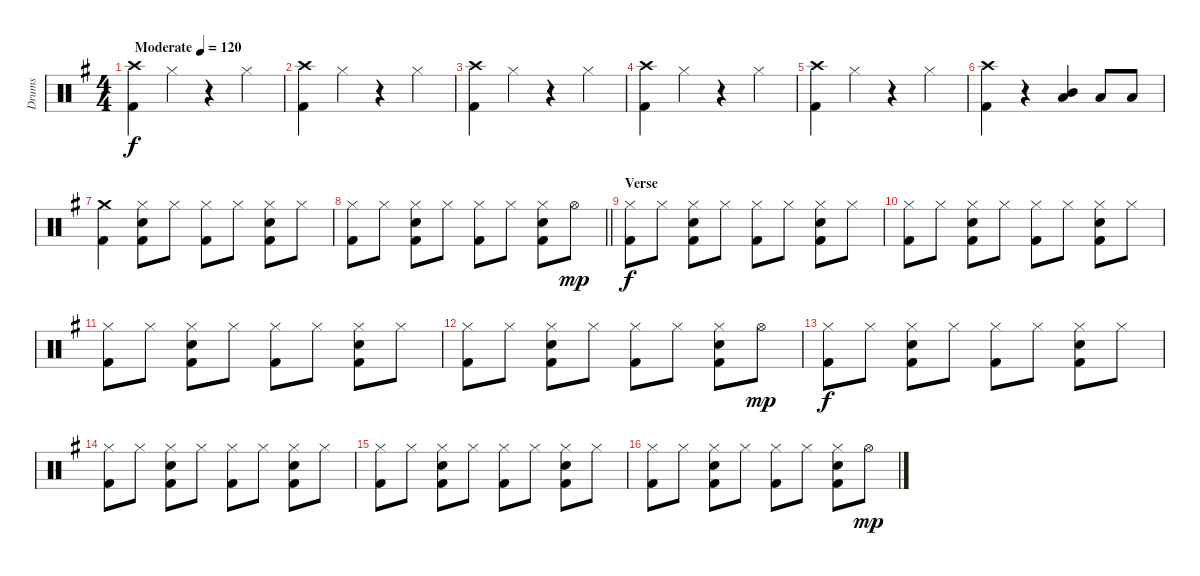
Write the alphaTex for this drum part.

\track ("Drums" "Drums") {instrument percussion}
\staff {score}
\articulation defaults
\ts (4 4)
\tempo (120 "Moderate")
\clef neutral
\ks g
("Crash high (hit)" "Kick (hit) 2").4{dy f} "Hi-Hat (closed)".4 r.4 "Hi-Hat (closed)".4 |
("Crash high (hit)" "Kick (hit) 2").4 "Hi-Hat (closed)".4 r.4 "Hi-Hat (closed)".4 |
("Crash high (hit)" "Kick (hit) 2").4 "Hi-Hat (closed)".4 r.4 "Hi-Hat (closed)".4 |
("Crash high (hit)" "Kick (hit) 2").4 "Hi-Hat (closed)".4 r.4 "Hi-Hat (closed)".4 |
("Crash high (hit)" "Kick (hit) 2").4 "Hi-Hat (closed)".4 r.4 "Hi-Hat (closed)".4 |
("Crash high (hit)" "Kick (hit) 2").4 r.4 ("Mid Tom (hit)" "Low Tom (hit)").4 "Low Tom (hit)".8 "Low Tom (hit)".8 |
("Crash medium (hit)" "Kick (hit) 2").4 ("Hi-Hat (closed)" "Electric Snare (hit)" "Kick (hit) 2").8 "Hi-Hat (closed)".8 ("Hi-Hat (closed)" "Kick (hit) 2").8 "Hi-Hat (closed)".8 ("Hi-Hat (closed)" "Electric Snare (hit)" "Kick (hit) 2").8 "Hi-Hat (closed)".8 |
\barLineRight lightlight
("Hi-Hat (closed)" "Kick (hit) 2").8 "Hi-Hat (closed)".8 ("Hi-Hat (closed)" "Electric Snare (hit)" "Kick (hit) 2").8 "Hi-Hat (closed)".8 ("Hi-Hat (closed)" "Kick (hit) 2").8 "Hi-Hat (closed)".8 ("Hi-Hat (closed)" "Electric Snare (hit)" "Kick (hit) 2").8 "Hi-Hat (open)".8{dy mp} |
\section ("" "Verse")
("Hi-Hat (closed)" "Kick (hit) 2").8{dy f} "Hi-Hat (closed)".8 ("Hi-Hat (closed)" "Electric Snare (hit)" "Kick (hit) 2").8 "Hi-Hat (closed)".8 ("Hi-Hat (closed)" "Kick (hit) 2").8 "Hi-Hat (closed)".8 ("Hi-Hat (closed)" "Electric Snare (hit)" "Kick (hit) 2").8 "Hi-Hat (closed)".8 |
("Hi-Hat (closed)" "Kick (hit) 2").8 "Hi-Hat (closed)".8 ("Hi-Hat (closed)" "Electric Snare (hit)" "Kick (hit) 2").8 "Hi-Hat (closed)".8 ("Hi-Hat (closed)" "Kick (hit) 2").8 "Hi-Hat (closed)".8 ("Hi-Hat (closed)" "Electric Snare (hit)" "Kick (hit) 2").8 "Hi-Hat (closed)".8 |
("Hi-Hat (closed)" "Kick (hit) 2").8 "Hi-Hat (closed)".8 ("Hi-Hat (closed)" "Electric Snare (hit)" "Kick (hit) 2").8 "Hi-Hat (closed)".8 ("Hi-Hat (closed)" "Kick (hit) 2").8 "Hi-Hat (closed)".8 ("Hi-Hat (closed)" "Electric Snare (hit)" "Kick (hit) 2").8 "Hi-Hat (closed)".8 |
("Hi-Hat (closed)" "Kick (hit) 2").8 "Hi-Hat (closed)".8 ("Hi-Hat (closed)" "Electric Snare (hit)" "Kick (hit) 2").8 "Hi-Hat (closed)".8 ("Hi-Hat (closed)" "Kick (hit) 2").8 "Hi-Hat (closed)".8 ("Hi-Hat (closed)" "Electric Snare (hit)" "Kick (hit) 2").8 "Hi-Hat (open)".8{dy mp} |
("Hi-Hat (closed)" "Kick (hit) 2").8{dy f} "Hi-Hat (closed)".8 ("Hi-Hat (closed)" "Electric Snare (hit)" "Kick (hit) 2").8 "Hi-Hat (closed)".8 ("Hi-Hat (closed)" "Kick (hit) 2").8 "Hi-Hat (closed)".8 ("Hi-Hat (closed)" "Electric Snare (hit)" "Kick (hit) 2").8 "Hi-Hat (closed)".8 |
("Hi-Hat (closed)" "Kick (hit) 2").8 "Hi-Hat (closed)".8 ("Hi-Hat (closed)" "Electric Snare (hit)" "Kick (hit) 2").8 "Hi-Hat (closed)".8 ("Hi-Hat (closed)" "Kick (hit) 2").8 "Hi-Hat (closed)".8 ("Hi-Hat (closed)" "Electric Snare (hit)" "Kick (hit) 2").8 "Hi-Hat (closed)".8 |
("Hi-Hat (closed)" "Kick (hit) 2").8 "Hi-Hat (closed)".8 ("Hi-Hat (closed)" "Electric Snare (hit)" "Kick (hit) 2").8 "Hi-Hat (closed)".8 ("Hi-Hat (closed)" "Kick (hit) 2").8 "Hi-Hat (closed)".8 ("Hi-Hat (closed)" "Electric Snare (hit)" "Kick (hit) 2").8 "Hi-Hat (closed)".8 |
("Hi-Hat (closed)" "Kick (hit) 2").8 "Hi-Hat (closed)".8 ("Hi-Hat (closed)" "Electric Snare (hit)" "Kick (hit) 2").8 "Hi-Hat (closed)".8 ("Hi-Hat (closed)" "Kick (hit) 2").8 "Hi-Hat (closed)".8 ("Hi-Hat (closed)" "Electric Snare (hit)" "Kick (hit) 2").8 "Hi-Hat (open)".8{dy mp}
